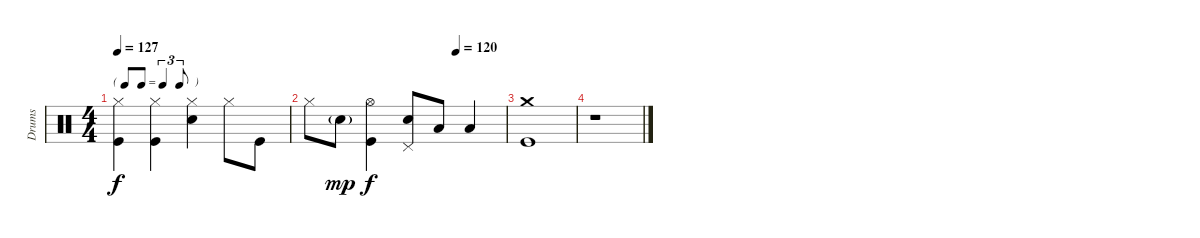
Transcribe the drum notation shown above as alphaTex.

\track ("Drums" "Drums") {instrument percussion}
\staff {score}
\articulation defaults
\ts (4 4)
\tf triplet8th
\tempo 127
\clef neutral
\ks c
("Hi-Hat (closed)" "Kick (hit)").4{dy f} ("Hi-Hat (closed)" "Kick (hit)").4 ("Hi-Hat (closed)" "Electric Snare (hit)").4 "Hi-Hat (closed)".8 "Kick (hit)".8 |
\tempo (120 0.75)
"Hi-Hat (closed)".8 "Electric Snare (hit)"{g}.8{dy mp} ("Hi-Hat (open)" "Kick (hit)").4{dy f} ("Pedal Hi-Hat (hit)" "Electric Snare (hit)").8 "Low Tom (hit)".8 "Low Floor Tom (hit)".4 |
("Crash medium (hit)" "Kick (hit)").1 |
r.1
